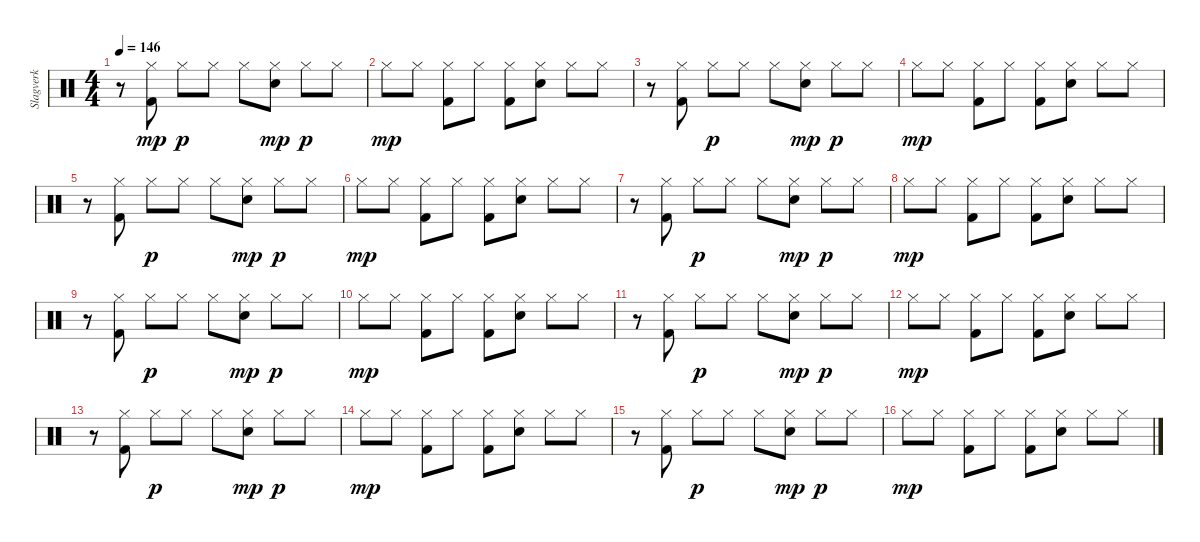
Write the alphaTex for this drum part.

\track ("Slagverk" "Slagverk") {instrument percussion}
\staff {score}
\articulation defaults
\ts (4 4)
\tempo 146
\clef neutral
\ks c
r.8{dy mp} ("Hi-Hat (closed)" "Kick (hit) 2").8 "Hi-Hat (closed)".8{dy p} "Hi-Hat (closed)".8 "Hi-Hat (closed)".8 ("Hi-Hat (closed)" "Snare (hit) 2").8{dy mp} "Hi-Hat (closed)".8{dy p} "Hi-Hat (closed)".8 |
"Hi-Hat (closed)".8{dy mp} "Hi-Hat (closed)".8 ("Hi-Hat (closed)" "Kick (hit) 2").8 "Hi-Hat (closed)".8 ("Hi-Hat (closed)" "Kick (hit) 2").8 ("Hi-Hat (closed)" "Snare (hit) 2").8 "Hi-Hat (closed)".8 "Hi-Hat (closed)".8 |
r.8 ("Hi-Hat (closed)" "Kick (hit) 2").8 "Hi-Hat (closed)".8{dy p} "Hi-Hat (closed)".8 "Hi-Hat (closed)".8 ("Hi-Hat (closed)" "Snare (hit) 2").8{dy mp} "Hi-Hat (closed)".8{dy p} "Hi-Hat (closed)".8 |
"Hi-Hat (closed)".8{dy mp} "Hi-Hat (closed)".8 ("Hi-Hat (closed)" "Kick (hit) 2").8 "Hi-Hat (closed)".8 ("Hi-Hat (closed)" "Kick (hit) 2").8 ("Hi-Hat (closed)" "Snare (hit) 2").8 "Hi-Hat (closed)".8 "Hi-Hat (closed)".8 |
r.8 ("Hi-Hat (closed)" "Kick (hit) 2").8 "Hi-Hat (closed)".8{dy p} "Hi-Hat (closed)".8 "Hi-Hat (closed)".8 ("Hi-Hat (closed)" "Snare (hit) 2").8{dy mp} "Hi-Hat (closed)".8{dy p} "Hi-Hat (closed)".8 |
"Hi-Hat (closed)".8{dy mp} "Hi-Hat (closed)".8 ("Hi-Hat (closed)" "Kick (hit) 2").8 "Hi-Hat (closed)".8 ("Hi-Hat (closed)" "Kick (hit) 2").8 ("Hi-Hat (closed)" "Snare (hit) 2").8 "Hi-Hat (closed)".8 "Hi-Hat (closed)".8 |
r.8 ("Hi-Hat (closed)" "Kick (hit) 2").8 "Hi-Hat (closed)".8{dy p} "Hi-Hat (closed)".8 "Hi-Hat (closed)".8 ("Hi-Hat (closed)" "Snare (hit) 2").8{dy mp} "Hi-Hat (closed)".8{dy p} "Hi-Hat (closed)".8 |
"Hi-Hat (closed)".8{dy mp} "Hi-Hat (closed)".8 ("Hi-Hat (closed)" "Kick (hit) 2").8 "Hi-Hat (closed)".8 ("Hi-Hat (closed)" "Kick (hit) 2").8 ("Hi-Hat (closed)" "Snare (hit) 2").8 "Hi-Hat (closed)".8 "Hi-Hat (closed)".8 |
r.8 ("Hi-Hat (closed)" "Kick (hit) 2").8 "Hi-Hat (closed)".8{dy p} "Hi-Hat (closed)".8 "Hi-Hat (closed)".8 ("Hi-Hat (closed)" "Snare (hit) 2").8{dy mp} "Hi-Hat (closed)".8{dy p} "Hi-Hat (closed)".8 |
"Hi-Hat (closed)".8{dy mp} "Hi-Hat (closed)".8 ("Hi-Hat (closed)" "Kick (hit) 2").8 "Hi-Hat (closed)".8 ("Hi-Hat (closed)" "Kick (hit) 2").8 ("Hi-Hat (closed)" "Snare (hit) 2").8 "Hi-Hat (closed)".8 "Hi-Hat (closed)".8 |
r.8 ("Hi-Hat (closed)" "Kick (hit) 2").8 "Hi-Hat (closed)".8{dy p} "Hi-Hat (closed)".8 "Hi-Hat (closed)".8 ("Hi-Hat (closed)" "Snare (hit) 2").8{dy mp} "Hi-Hat (closed)".8{dy p} "Hi-Hat (closed)".8 |
"Hi-Hat (closed)".8{dy mp} "Hi-Hat (closed)".8 ("Hi-Hat (closed)" "Kick (hit) 2").8 "Hi-Hat (closed)".8 ("Hi-Hat (closed)" "Kick (hit) 2").8 ("Hi-Hat (closed)" "Snare (hit) 2").8 "Hi-Hat (closed)".8 "Hi-Hat (closed)".8 |
r.8 ("Hi-Hat (closed)" "Kick (hit) 2").8 "Hi-Hat (closed)".8{dy p} "Hi-Hat (closed)".8 "Hi-Hat (closed)".8 ("Hi-Hat (closed)" "Snare (hit) 2").8{dy mp} "Hi-Hat (closed)".8{dy p} "Hi-Hat (closed)".8 |
"Hi-Hat (closed)".8{dy mp} "Hi-Hat (closed)".8 ("Hi-Hat (closed)" "Kick (hit) 2").8 "Hi-Hat (closed)".8 ("Hi-Hat (closed)" "Kick (hit) 2").8 ("Hi-Hat (closed)" "Snare (hit) 2").8 "Hi-Hat (closed)".8 "Hi-Hat (closed)".8 |
r.8 ("Hi-Hat (closed)" "Kick (hit) 2").8 "Hi-Hat (closed)".8{dy p} "Hi-Hat (closed)".8 "Hi-Hat (closed)".8 ("Hi-Hat (closed)" "Snare (hit) 2").8{dy mp} "Hi-Hat (closed)".8{dy p} "Hi-Hat (closed)".8 |
"Hi-Hat (closed)".8{dy mp} "Hi-Hat (closed)".8 ("Hi-Hat (closed)" "Kick (hit) 2").8 "Hi-Hat (closed)".8 ("Hi-Hat (closed)" "Kick (hit) 2").8 ("Hi-Hat (closed)" "Snare (hit) 2").8 "Hi-Hat (closed)".8 "Hi-Hat (closed)".8
